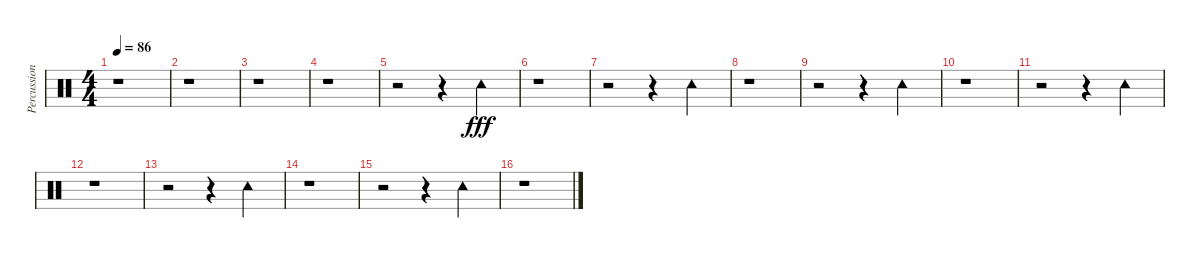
\track ("Percussion" "Percussion") {instrument percussion}
\staff {score}
\articulation defaults
\ts (4 4)
\tempo 86
\clef neutral
\ks c
r.1{dy fff} |
r.1 |
r.1 |
r.1 |
r.2 r.4 "Tambourine (hit)".4 |
r.1 |
r.2 r.4 "Tambourine (hit)".4 |
r.1 |
r.2 r.4 "Tambourine (hit)".4 |
r.1 |
r.2 r.4 "Tambourine (hit)".4 |
r.1 |
r.2 r.4 "Tambourine (hit)".4 |
r.1 |
r.2 r.4 "Tambourine (hit)".4 |
r.1
